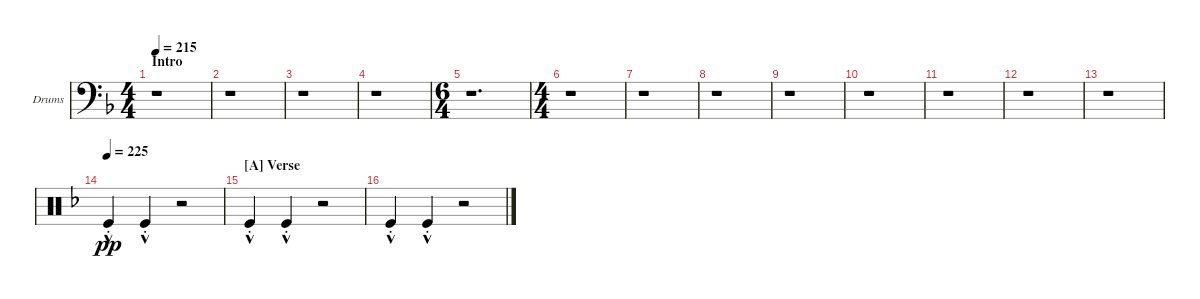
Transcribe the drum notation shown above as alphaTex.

\defaultSystemsLayout 4
\bracketExtendMode groupsimilarinstruments
\firstSystemTrackNameOrientation horizontal
\otherSystemsTrackNameOrientation horizontal
\track ("Drumkit" "Drums") {instrument percussion}
\staff {score}
\articulation defaults
\ts (4 4)
\section ("" "Intro")
\tempo 215
\clef f4
\scale
0.474178
\ks dminor
r.1{dy pp} |
\scale
0.262911 r.1 |
\scale
0.262911 r.1 |
\scale
0.217054 r.1 |
\ts (6 4)
\scale
0.391473 r.1{d} |
\ts (4 4)
\scale
0.391473 r.1 |
\scale
0.333333 r.1 |
\scale
0.333333 r.1 |
\scale
0.333333 r.1 |
\scale
0.333333 r.1 |
\scale
0.333333 r.1 |
\scale
0.333333 r.1 |
\scale
0.333333 r.1 |
\tempo 225
\clef neutral
\scale
0.333333 "Kick (hit)"{hac st}.4 "Kick (hit)"{hac st}.4 r.2 |
\section ("A" "Verse")
\scale
0.333333 "Kick (hit)"{hac st}.4 "Kick (hit)"{hac st}.4 r.2 |
\scale
0.333333 "Kick (hit)"{hac st}.4 "Kick (hit)"{hac st}.4 r.2
